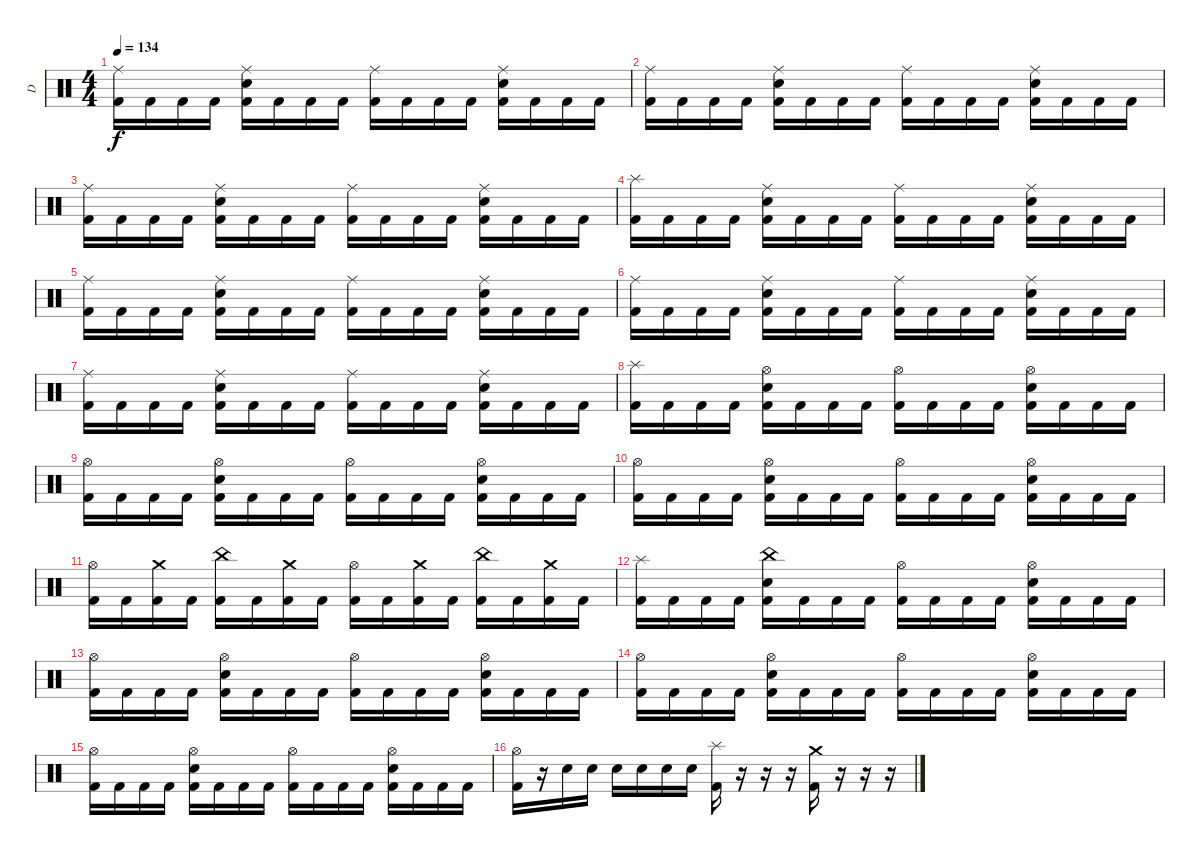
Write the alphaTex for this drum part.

\track ("D" "D") {instrument percussion}
\staff {score}
\articulation defaults
\ts (4 4)
\tempo 134
\clef neutral
\ks c
("Ride (middle)" "Kick (hit) 2").16{dy f} "Kick (hit) 2".16 "Kick (hit) 2".16 "Kick (hit) 2".16 ("Ride (middle)" "Snare (hit) 2" "Kick (hit) 2").16 "Kick (hit) 2".16 "Kick (hit) 2".16 "Kick (hit) 2".16 ("Ride (middle)" "Kick (hit) 2").16 "Kick (hit) 2".16 "Kick (hit) 2".16 "Kick (hit) 2".16 ("Ride (middle)" "Snare (hit) 2" "Kick (hit) 2").16 "Kick (hit) 2".16 "Kick (hit) 2".16 "Kick (hit) 2".16 |
("Ride (middle)" "Kick (hit) 2").16 "Kick (hit) 2".16 "Kick (hit) 2".16 "Kick (hit) 2".16 ("Ride (middle)" "Snare (hit) 2" "Kick (hit) 2").16 "Kick (hit) 2".16 "Kick (hit) 2".16 "Kick (hit) 2".16 ("Ride (middle)" "Kick (hit) 2").16 "Kick (hit) 2".16 "Kick (hit) 2".16 "Kick (hit) 2".16 ("Ride (middle)" "Snare (hit) 2" "Kick (hit) 2").16 "Kick (hit) 2".16 "Kick (hit) 2".16 "Kick (hit) 2".16 |
("Ride (middle)" "Kick (hit) 2").16 "Kick (hit) 2".16 "Kick (hit) 2".16 "Kick (hit) 2".16 ("Ride (middle)" "Snare (hit) 2" "Kick (hit) 2").16 "Kick (hit) 2".16 "Kick (hit) 2".16 "Kick (hit) 2".16 ("Ride (middle)" "Kick (hit) 2").16 "Kick (hit) 2".16 "Kick (hit) 2".16 "Kick (hit) 2".16 ("Ride (middle)" "Snare (hit) 2" "Kick (hit) 2").16 "Kick (hit) 2".16 "Kick (hit) 2".16 "Kick (hit) 2".16 |
("Splash (hit)" "Kick (hit) 2").16 "Kick (hit) 2".16 "Kick (hit) 2".16 "Kick (hit) 2".16 ("Ride (middle)" "Snare (hit) 2" "Kick (hit) 2").16 "Kick (hit) 2".16 "Kick (hit) 2".16 "Kick (hit) 2".16 ("Ride (middle)" "Kick (hit) 2").16 "Kick (hit) 2".16 "Kick (hit) 2".16 "Kick (hit) 2".16 ("Ride (middle)" "Snare (hit) 2" "Kick (hit) 2").16 "Kick (hit) 2".16 "Kick (hit) 2".16 "Kick (hit) 2".16 |
("Ride (middle)" "Kick (hit) 2").16 "Kick (hit) 2".16 "Kick (hit) 2".16 "Kick (hit) 2".16 ("Ride (middle)" "Snare (hit) 2" "Kick (hit) 2").16 "Kick (hit) 2".16 "Kick (hit) 2".16 "Kick (hit) 2".16 ("Ride (middle)" "Kick (hit) 2").16 "Kick (hit) 2".16 "Kick (hit) 2".16 "Kick (hit) 2".16 ("Ride (middle)" "Snare (hit) 2" "Kick (hit) 2").16 "Kick (hit) 2".16 "Kick (hit) 2".16 "Kick (hit) 2".16 |
("Ride (middle)" "Kick (hit) 2").16 "Kick (hit) 2".16 "Kick (hit) 2".16 "Kick (hit) 2".16 ("Ride (middle)" "Snare (hit) 2" "Kick (hit) 2").16 "Kick (hit) 2".16 "Kick (hit) 2".16 "Kick (hit) 2".16 ("Ride (middle)" "Kick (hit) 2").16 "Kick (hit) 2".16 "Kick (hit) 2".16 "Kick (hit) 2".16 ("Ride (middle)" "Snare (hit) 2" "Kick (hit) 2").16 "Kick (hit) 2".16 "Kick (hit) 2".16 "Kick (hit) 2".16 |
("Ride (middle)" "Kick (hit) 2").16 "Kick (hit) 2".16 "Kick (hit) 2".16 "Kick (hit) 2".16 ("Ride (middle)" "Snare (hit) 2" "Kick (hit) 2").16 "Kick (hit) 2".16 "Kick (hit) 2".16 "Kick (hit) 2".16 ("Ride (middle)" "Kick (hit) 2").16 "Kick (hit) 2".16 "Kick (hit) 2".16 "Kick (hit) 2".16 ("Ride (middle)" "Snare (hit) 2" "Kick (hit) 2").16 "Kick (hit) 2".16 "Kick (hit) 2".16 "Kick (hit) 2".16 |
("Splash (hit)" "Kick (hit) 2").16 "Kick (hit) 2".16 "Kick (hit) 2".16 "Kick (hit) 2".16 ("Hi-Hat (open)" "Snare (hit) 2" "Kick (hit) 2").16 "Kick (hit) 2".16 "Kick (hit) 2".16 "Kick (hit) 2".16 ("Hi-Hat (open)" "Kick (hit) 2").16 "Kick (hit) 2".16 "Kick (hit) 2".16 "Kick (hit) 2".16 ("Hi-Hat (open)" "Snare (hit) 2" "Kick (hit) 2").16 "Kick (hit) 2".16 "Kick (hit) 2".16 "Kick (hit) 2".16 |
("Hi-Hat (open)" "Kick (hit) 2").16 "Kick (hit) 2".16 "Kick (hit) 2".16 "Kick (hit) 2".16 ("Hi-Hat (open)" "Snare (hit) 2" "Kick (hit) 2").16 "Kick (hit) 2".16 "Kick (hit) 2".16 "Kick (hit) 2".16 ("Hi-Hat (open)" "Kick (hit) 2").16 "Kick (hit) 2".16 "Kick (hit) 2".16 "Kick (hit) 2".16 ("Hi-Hat (open)" "Snare (hit) 2" "Kick (hit) 2").16 "Kick (hit) 2".16 "Kick (hit) 2".16 "Kick (hit) 2".16 |
("Hi-Hat (open)" "Kick (hit) 2").16 "Kick (hit) 2".16 "Kick (hit) 2".16 "Kick (hit) 2".16 ("Hi-Hat (open)" "Snare (hit) 2" "Kick (hit) 2").16 "Kick (hit) 2".16 "Kick (hit) 2".16 "Kick (hit) 2".16 ("Hi-Hat (open)" "Kick (hit) 2").16 "Kick (hit) 2".16 "Kick (hit) 2".16 "Kick (hit) 2".16 ("Hi-Hat (open)" "Snare (hit) 2" "Kick (hit) 2").16 "Kick (hit) 2".16 "Kick (hit) 2".16 "Kick (hit) 2".16 |
("Hi-Hat (open)" "Kick (hit) 2").16 "Kick (hit) 2".16 ("Crash medium (hit)" "Kick (hit) 2").16 "Kick (hit) 2".16 ("China (hit)" "Kick (hit) 2").16 "Kick (hit) 2".16 ("Crash medium (hit)" "Kick (hit) 2").16 "Kick (hit) 2".16 ("Hi-Hat (open)" "Kick (hit) 2").16 "Kick (hit) 2".16 ("Crash medium (hit)" "Kick (hit) 2").16 "Kick (hit) 2".16 ("China (hit)" "Kick (hit) 2").16 "Kick (hit) 2".16 ("Crash medium (hit)" "Kick (hit) 2").16 "Kick (hit) 2".16 |
("Splash (hit)" "Kick (hit) 2").16 "Kick (hit) 2".16 "Kick (hit) 2".16 "Kick (hit) 2".16 ("China (hit)" "Snare (hit) 2" "Kick (hit) 2").16 "Kick (hit) 2".16 "Kick (hit) 2".16 "Kick (hit) 2".16 ("Hi-Hat (open)" "Kick (hit) 2").16 "Kick (hit) 2".16 "Kick (hit) 2".16 "Kick (hit) 2".16 ("Hi-Hat (open)" "Snare (hit) 2" "Kick (hit) 2").16 "Kick (hit) 2".16 "Kick (hit) 2".16 "Kick (hit) 2".16 |
("Hi-Hat (open)" "Kick (hit) 2").16 "Kick (hit) 2".16 "Kick (hit) 2".16 "Kick (hit) 2".16 ("Hi-Hat (open)" "Snare (hit) 2" "Kick (hit) 2").16 "Kick (hit) 2".16 "Kick (hit) 2".16 "Kick (hit) 2".16 ("Hi-Hat (open)" "Kick (hit) 2").16 "Kick (hit) 2".16 "Kick (hit) 2".16 "Kick (hit) 2".16 ("Hi-Hat (open)" "Snare (hit) 2" "Kick (hit) 2").16 "Kick (hit) 2".16 "Kick (hit) 2".16 "Kick (hit) 2".16 |
("Hi-Hat (open)" "Kick (hit) 2").16 "Kick (hit) 2".16 "Kick (hit) 2".16 "Kick (hit) 2".16 ("Hi-Hat (open)" "Snare (hit) 2" "Kick (hit) 2").16 "Kick (hit) 2".16 "Kick (hit) 2".16 "Kick (hit) 2".16 ("Hi-Hat (open)" "Kick (hit) 2").16 "Kick (hit) 2".16 "Kick (hit) 2".16 "Kick (hit) 2".16 ("Hi-Hat (open)" "Snare (hit) 2" "Kick (hit) 2").16 "Kick (hit) 2".16 "Kick (hit) 2".16 "Kick (hit) 2".16 |
("Hi-Hat (open)" "Kick (hit) 2").16 "Kick (hit) 2".16 "Kick (hit) 2".16 "Kick (hit) 2".16 ("Hi-Hat (open)" "Snare (hit) 2" "Kick (hit) 2").16 "Kick (hit) 2".16 "Kick (hit) 2".16 "Kick (hit) 2".16 ("Hi-Hat (open)" "Kick (hit) 2").16 "Kick (hit) 2".16 "Kick (hit) 2".16 "Kick (hit) 2".16 ("Hi-Hat (open)" "Snare (hit) 2" "Kick (hit) 2").16 "Kick (hit) 2".16 "Kick (hit) 2".16 "Kick (hit) 2".16 |
("Hi-Hat (open)" "Kick (hit) 2").16 r.16 "Snare (hit) 2".16 "Snare (hit) 2".16 "Snare (hit) 2".16 "Snare (hit) 2".16 "Snare (hit) 2".16 "Snare (hit) 2".16 ("Splash (hit)" "Kick (hit) 2").16 r.16 r.16 r.16 ("Crash medium (hit)" "Kick (hit) 2").16 r.16 r.16 r.16
